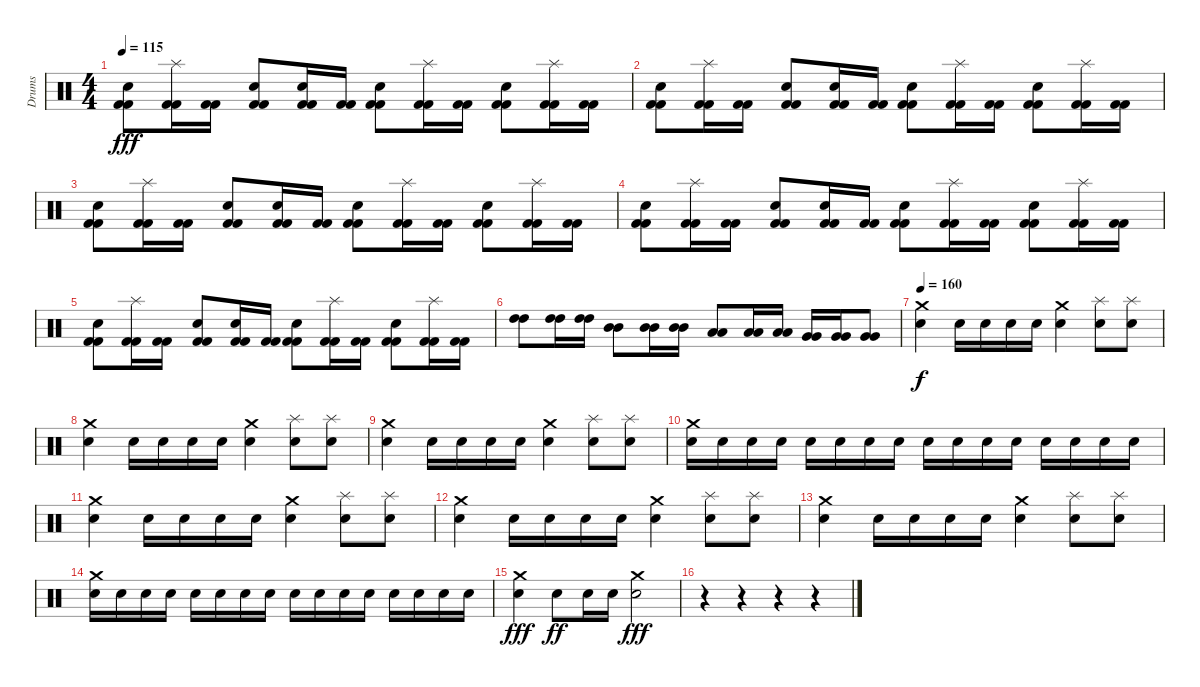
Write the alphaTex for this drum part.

\track ("Drums" "Drums") {instrument percussion}
\staff {score}
\articulation defaults
\ts (4 4)
\tempo 115
\clef neutral
\ks c
("Snare (hit) 2" "Kick (hit) 2" "Kick (hit) 2").8{dy fff} ("Splash (hit)" "Kick (hit) 2" "Kick (hit) 2").16 ("Kick (hit) 2" "Kick (hit) 2").16 ("Snare (hit) 2" "Kick (hit) 2" "Kick (hit) 2").8 ("Snare (hit) 2" "Kick (hit) 2" "Kick (hit) 2").16 ("Kick (hit) 2" "Kick (hit) 2").16 ("Snare (hit) 2" "Kick (hit) 2" "Kick (hit) 2").8 ("Splash (hit)" "Kick (hit) 2" "Kick (hit) 2").16 ("Kick (hit) 2" "Kick (hit) 2").16 ("Snare (hit) 2" "Kick (hit) 2" "Kick (hit) 2").8 ("Splash (hit)" "Kick (hit) 2" "Kick (hit) 2").16 ("Kick (hit) 2" "Kick (hit) 2").16 |
("Snare (hit) 2" "Kick (hit) 2" "Kick (hit) 2").8 ("Splash (hit)" "Kick (hit) 2" "Kick (hit) 2").16 ("Kick (hit) 2" "Kick (hit) 2").16 ("Snare (hit) 2" "Kick (hit) 2" "Kick (hit) 2").8 ("Snare (hit) 2" "Kick (hit) 2" "Kick (hit) 2").16 ("Kick (hit) 2" "Kick (hit) 2").16 ("Snare (hit) 2" "Kick (hit) 2" "Kick (hit) 2").8 ("Splash (hit)" "Kick (hit) 2" "Kick (hit) 2").16 ("Kick (hit) 2" "Kick (hit) 2").16 ("Snare (hit) 2" "Kick (hit) 2" "Kick (hit) 2").8 ("Splash (hit)" "Kick (hit) 2" "Kick (hit) 2").16 ("Kick (hit) 2" "Kick (hit) 2").16 |
("Snare (hit) 2" "Kick (hit) 2" "Kick (hit) 2").8 ("Splash (hit)" "Kick (hit) 2" "Kick (hit) 2").16 ("Kick (hit) 2" "Kick (hit) 2").16 ("Snare (hit) 2" "Kick (hit) 2" "Kick (hit) 2").8 ("Snare (hit) 2" "Kick (hit) 2" "Kick (hit) 2").16 ("Kick (hit) 2" "Kick (hit) 2").16 ("Snare (hit) 2" "Kick (hit) 2" "Kick (hit) 2").8 ("Splash (hit)" "Kick (hit) 2" "Kick (hit) 2").16 ("Kick (hit) 2" "Kick (hit) 2").16 ("Snare (hit) 2" "Kick (hit) 2" "Kick (hit) 2").8 ("Splash (hit)" "Kick (hit) 2" "Kick (hit) 2").16 ("Kick (hit) 2" "Kick (hit) 2").16 |
("Snare (hit) 2" "Kick (hit) 2" "Kick (hit) 2").8 ("Splash (hit)" "Kick (hit) 2" "Kick (hit) 2").16 ("Kick (hit) 2" "Kick (hit) 2").16 ("Snare (hit) 2" "Kick (hit) 2" "Kick (hit) 2").8 ("Snare (hit) 2" "Kick (hit) 2" "Kick (hit) 2").16 ("Kick (hit) 2" "Kick (hit) 2").16 ("Snare (hit) 2" "Kick (hit) 2" "Kick (hit) 2").8 ("Splash (hit)" "Kick (hit) 2" "Kick (hit) 2").16 ("Kick (hit) 2" "Kick (hit) 2").16 ("Snare (hit) 2" "Kick (hit) 2" "Kick (hit) 2").8 ("Splash (hit)" "Kick (hit) 2" "Kick (hit) 2").16 ("Kick (hit) 2" "Kick (hit) 2").16 |
("Snare (hit) 2" "Kick (hit) 2" "Kick (hit) 2").8 ("Splash (hit)" "Kick (hit) 2" "Kick (hit) 2").16 ("Kick (hit) 2" "Kick (hit) 2").16 ("Snare (hit) 2" "Kick (hit) 2" "Kick (hit) 2").8 ("Snare (hit) 2" "Kick (hit) 2" "Kick (hit) 2").16 ("Kick (hit) 2" "Kick (hit) 2").16 ("Snare (hit) 2" "Kick (hit) 2" "Kick (hit) 2").8 ("Splash (hit)" "Kick (hit) 2" "Kick (hit) 2").16 ("Kick (hit) 2" "Kick (hit) 2").16 ("Snare (hit) 2" "Kick (hit) 2" "Kick (hit) 2").8 ("Splash (hit)" "Kick (hit) 2" "Kick (hit) 2").16 ("Kick (hit) 2" "Kick (hit) 2").16 |
("High Tom (hit)" "High Tom (hit)").8 ("High Tom (hit)" "High Tom (hit)").16 ("High Tom (hit)" "High Tom (hit)").16 ("Mid Tom (hit)" "Mid Tom (hit)").8 ("Mid Tom (hit)" "Mid Tom (hit)").16 ("Mid Tom (hit)" "Mid Tom (hit)").16 ("Low Tom (hit)" "Low Tom (hit)").8 ("Low Tom (hit)" "Low Tom (hit)").16 ("Low Tom (hit)" "Low Tom (hit)").16 ("Very Low Tom (hit)" "Very Low Tom (hit)").16 ("Very Low Tom (hit)" "Very Low Tom (hit)").16 ("Very Low Tom (hit)" "Very Low Tom (hit)").8 |
\tempo 160
("Electric Snare (hit)" "Crash medium (hit)").4{dy f} "Electric Snare (hit)".16 "Electric Snare (hit)".16 "Electric Snare (hit)".16 "Electric Snare (hit)".16 ("Electric Snare (hit)" "Crash medium (hit)").4 ("Electric Snare (hit)" "Splash (hit)").8 ("Electric Snare (hit)" "Splash (hit)").8 |
("Electric Snare (hit)" "Crash medium (hit)").4 "Electric Snare (hit)".16 "Electric Snare (hit)".16 "Electric Snare (hit)".16 "Electric Snare (hit)".16 ("Electric Snare (hit)" "Crash medium (hit)").4 ("Electric Snare (hit)" "Splash (hit)").8 ("Electric Snare (hit)" "Splash (hit)").8 |
("Electric Snare (hit)" "Crash medium (hit)").4 "Electric Snare (hit)".16 "Electric Snare (hit)".16 "Electric Snare (hit)".16 "Electric Snare (hit)".16 ("Electric Snare (hit)" "Crash medium (hit)").4 ("Electric Snare (hit)" "Splash (hit)").8 ("Electric Snare (hit)" "Splash (hit)").8 |
("Crash medium (hit)" "Electric Snare (hit)").16 "Electric Snare (hit)".16 "Electric Snare (hit)".16 "Electric Snare (hit)".16 "Electric Snare (hit)".16 "Electric Snare (hit)".16 "Electric Snare (hit)".16 "Electric Snare (hit)".16 "Electric Snare (hit)".16 "Electric Snare (hit)".16 "Electric Snare (hit)".16 "Electric Snare (hit)".16 "Electric Snare (hit)".16 "Electric Snare (hit)".16 "Electric Snare (hit)".16 "Electric Snare (hit)".16 |
("Electric Snare (hit)" "Crash medium (hit)").4 "Electric Snare (hit)".16 "Electric Snare (hit)".16 "Electric Snare (hit)".16 "Electric Snare (hit)".16 ("Electric Snare (hit)" "Crash medium (hit)").4 ("Electric Snare (hit)" "Splash (hit)").8 ("Electric Snare (hit)" "Splash (hit)").8 |
("Electric Snare (hit)" "Crash medium (hit)").4 "Electric Snare (hit)".16 "Electric Snare (hit)".16 "Electric Snare (hit)".16 "Electric Snare (hit)".16 ("Electric Snare (hit)" "Crash medium (hit)").4 ("Electric Snare (hit)" "Splash (hit)").8 ("Electric Snare (hit)" "Splash (hit)").8 |
("Electric Snare (hit)" "Crash medium (hit)").4 "Electric Snare (hit)".16 "Electric Snare (hit)".16 "Electric Snare (hit)".16 "Electric Snare (hit)".16 ("Electric Snare (hit)" "Crash medium (hit)").4 ("Electric Snare (hit)" "Splash (hit)").8 ("Electric Snare (hit)" "Splash (hit)").8 |
("Crash medium (hit)" "Electric Snare (hit)").16 "Electric Snare (hit)".16 "Electric Snare (hit)".16 "Electric Snare (hit)".16 "Electric Snare (hit)".16 "Electric Snare (hit)".16 "Electric Snare (hit)".16 "Electric Snare (hit)".16 "Electric Snare (hit)".16 "Electric Snare (hit)".16 "Electric Snare (hit)".16 "Electric Snare (hit)".16 "Electric Snare (hit)".16 "Electric Snare (hit)".16 "Electric Snare (hit)".16 "Electric Snare (hit)".16 |
("Crash medium (hit)" "Electric Snare (hit)").4{dy fff} "Electric Snare (hit)".8{dy ff} "Electric Snare (hit)".16 "Electric Snare (hit)".16 ("Crash medium (hit)" "Electric Snare (hit)").2{dy fff} |
r.4 r.4 r.4 r.4
